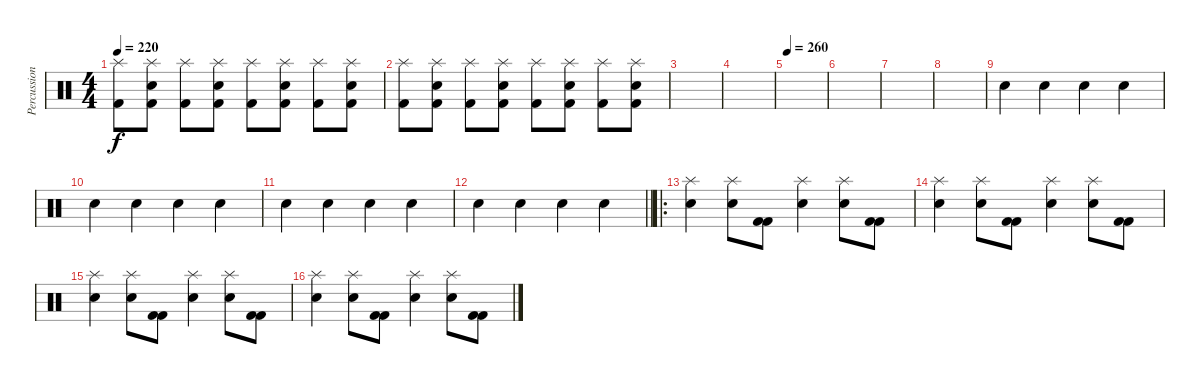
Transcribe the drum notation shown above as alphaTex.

\track ("Percussions" "Percussion") {instrument percussion}
\staff {score}
\articulation defaults
\ts (4 4)
\tempo 220
\clef neutral
\ks c
("Kick (hit) 2" "Splash (hit)").8{dy f} ("Kick (hit) 2" "Electric Snare (hit)" "Splash (hit)").8 ("Kick (hit) 2" "Splash (hit)").8 ("Kick (hit) 2" "Electric Snare (hit)" "Splash (hit)").8 ("Kick (hit) 2" "Splash (hit)").8 ("Kick (hit) 2" "Electric Snare (hit)" "Splash (hit)").8 ("Kick (hit) 2" "Splash (hit)").8 ("Kick (hit) 2" "Electric Snare (hit)" "Splash (hit)").8 |
("Kick (hit) 2" "Splash (hit)").8 ("Kick (hit) 2" "Electric Snare (hit)" "Splash (hit)").8 ("Kick (hit) 2" "Splash (hit)").8 ("Kick (hit) 2" "Electric Snare (hit)" "Splash (hit)").8 ("Kick (hit) 2" "Splash (hit)").8 ("Kick (hit) 2" "Electric Snare (hit)" "Splash (hit)").8 ("Kick (hit) 2" "Splash (hit)").8 ("Kick (hit) 2" "Electric Snare (hit)" "Splash (hit)").8 |
|
|
\tempo 260
|
|
|
|
"Electric Snare (hit)".4 "Electric Snare (hit)".4 "Electric Snare (hit)".4 "Electric Snare (hit)".4 |
"Electric Snare (hit)".4 "Electric Snare (hit)".4 "Electric Snare (hit)".4 "Electric Snare (hit)".4 |
"Electric Snare (hit)".4 "Electric Snare (hit)".4 "Electric Snare (hit)".4 "Electric Snare (hit)".4 |
\barLineRight lightlight "Electric Snare (hit)".4 "Electric Snare (hit)".4 "Electric Snare (hit)".4 "Electric Snare (hit)".4
|
\ro
("Electric Snare (hit)" "Splash (hit)").4 ("Electric Snare (hit)" "Splash (hit)").8 ("Kick (hit) 2" "Kick (hit) 2").8 ("Electric Snare (hit)" "Splash (hit)").4 ("Electric Snare (hit)" "Splash (hit)").8 ("Kick (hit) 2" "Kick (hit) 2").8 |
("Electric Snare (hit)" "Splash (hit)").4 ("Electric Snare (hit)" "Splash (hit)").8 ("Kick (hit) 2" "Kick (hit) 2").8 ("Electric Snare (hit)" "Splash (hit)").4 ("Electric Snare (hit)" "Splash (hit)").8 ("Kick (hit) 2" "Kick (hit) 2").8 |
("Electric Snare (hit)" "Splash (hit)").4 ("Electric Snare (hit)" "Splash (hit)").8 ("Kick (hit) 2" "Kick (hit) 2").8 ("Electric Snare (hit)" "Splash (hit)").4 ("Electric Snare (hit)" "Splash (hit)").8 ("Kick (hit) 2" "Kick (hit) 2").8 |
("Electric Snare (hit)" "Splash (hit)").4 ("Electric Snare (hit)" "Splash (hit)").8 ("Kick (hit) 2" "Kick (hit) 2").8 ("Electric Snare (hit)" "Splash (hit)").4 ("Electric Snare (hit)" "Splash (hit)").8 ("Kick (hit) 2" "Kick (hit) 2").8
